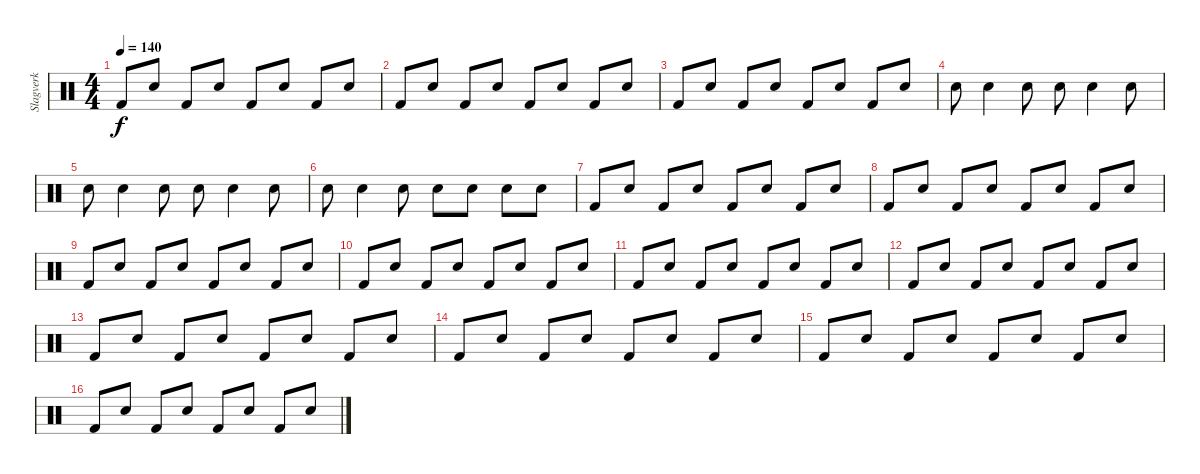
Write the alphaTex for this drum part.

\track ("Slagverk" "Slagverk") {instrument percussion}
\staff {score}
\articulation defaults
\ts (4 4)
\tempo 140
\clef neutral
\ks c "Kick (hit) 2".8{dy f} "Snare (hit) 2".8 "Kick (hit) 2".8 "Snare (hit) 2".8 "Kick (hit) 2".8 "Snare (hit) 2".8 "Kick (hit) 2".8 "Snare (hit) 2".8
|
"Kick (hit) 2".8 "Snare (hit) 2".8 "Kick (hit) 2".8 "Snare (hit) 2".8 "Kick (hit) 2".8 "Snare (hit) 2".8 "Kick (hit) 2".8 "Snare (hit) 2".8 |
"Kick (hit) 2".8 "Snare (hit) 2".8 "Kick (hit) 2".8 "Snare (hit) 2".8 "Kick (hit) 2".8 "Snare (hit) 2".8 "Kick (hit) 2".8 "Snare (hit) 2".8 |
"Snare (hit) 2".8 "Snare (hit) 2".4 "Snare (hit) 2".8 "Snare (hit) 2".8 "Snare (hit) 2".4 "Snare (hit) 2".8 |
"Snare (hit) 2".8 "Snare (hit) 2".4 "Snare (hit) 2".8 "Snare (hit) 2".8 "Snare (hit) 2".4 "Snare (hit) 2".8 |
"Snare (hit) 2".8 "Snare (hit) 2".4 "Snare (hit) 2".8 "Snare (hit) 2".8 "Snare (hit) 2".8 "Snare (hit) 2".8 "Snare (hit) 2".8 |
"Kick (hit) 2".8 "Snare (hit) 2".8 "Kick (hit) 2".8 "Snare (hit) 2".8 "Kick (hit) 2".8 "Snare (hit) 2".8 "Kick (hit) 2".8 "Snare (hit) 2".8 |
"Kick (hit) 2".8 "Snare (hit) 2".8 "Kick (hit) 2".8 "Snare (hit) 2".8 "Kick (hit) 2".8 "Snare (hit) 2".8 "Kick (hit) 2".8 "Snare (hit) 2".8 |
"Kick (hit) 2".8 "Snare (hit) 2".8 "Kick (hit) 2".8 "Snare (hit) 2".8 "Kick (hit) 2".8 "Snare (hit) 2".8 "Kick (hit) 2".8 "Snare (hit) 2".8 |
"Kick (hit) 2".8 "Snare (hit) 2".8 "Kick (hit) 2".8 "Snare (hit) 2".8 "Kick (hit) 2".8 "Snare (hit) 2".8 "Kick (hit) 2".8 "Snare (hit) 2".8 |
"Kick (hit) 2".8 "Snare (hit) 2".8 "Kick (hit) 2".8 "Snare (hit) 2".8 "Kick (hit) 2".8 "Snare (hit) 2".8 "Kick (hit) 2".8 "Snare (hit) 2".8 |
"Kick (hit) 2".8 "Snare (hit) 2".8 "Kick (hit) 2".8 "Snare (hit) 2".8 "Kick (hit) 2".8 "Snare (hit) 2".8 "Kick (hit) 2".8 "Snare (hit) 2".8 |
"Kick (hit) 2".8 "Snare (hit) 2".8 "Kick (hit) 2".8 "Snare (hit) 2".8 "Kick (hit) 2".8 "Snare (hit) 2".8 "Kick (hit) 2".8 "Snare (hit) 2".8 |
"Kick (hit) 2".8 "Snare (hit) 2".8 "Kick (hit) 2".8 "Snare (hit) 2".8 "Kick (hit) 2".8 "Snare (hit) 2".8 "Kick (hit) 2".8 "Snare (hit) 2".8 |
"Kick (hit) 2".8 "Snare (hit) 2".8 "Kick (hit) 2".8 "Snare (hit) 2".8 "Kick (hit) 2".8 "Snare (hit) 2".8 "Kick (hit) 2".8 "Snare (hit) 2".8 |
"Kick (hit) 2".8 "Snare (hit) 2".8 "Kick (hit) 2".8 "Snare (hit) 2".8 "Kick (hit) 2".8 "Snare (hit) 2".8 "Kick (hit) 2".8 "Snare (hit) 2".8
